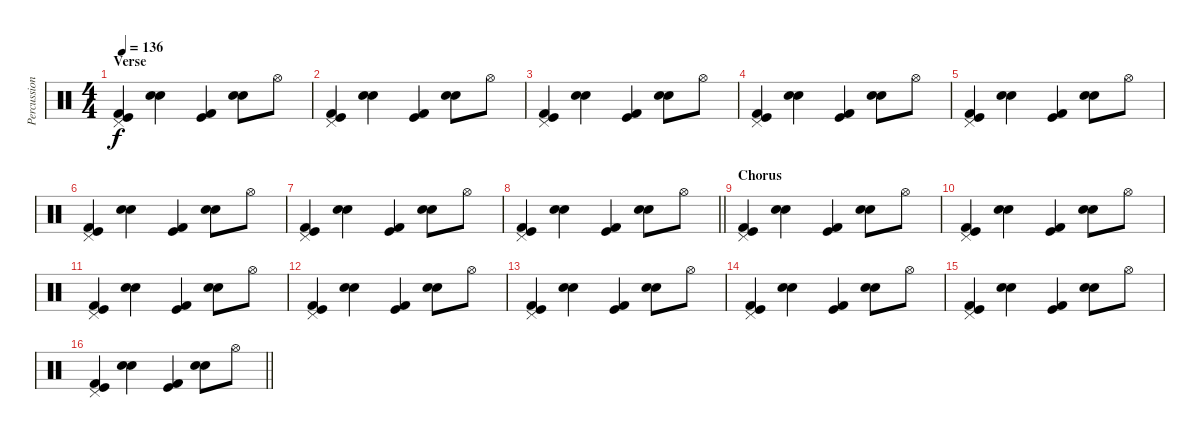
\track ("Percussion" "Percussion") {instrument percussion}
\staff {score}
\articulation defaults
\ts (4 4)
\section ("" "Verse")
\tempo 136
\clef neutral
\ks c
("Pedal Hi-Hat (hit)" "Kick (hit)" "Kick (hit) 2").4{dy f} ("Snare (hit) 2" "Electric Snare (hit)").4 ("Kick (hit)" "Kick (hit) 2").4 ("Snare (hit) 2" "Electric Snare (hit)").8 "Hi-Hat (open)".8 |
("Pedal Hi-Hat (hit)" "Kick (hit)" "Kick (hit) 2").4 ("Snare (hit) 2" "Electric Snare (hit)").4 ("Kick (hit)" "Kick (hit) 2").4 ("Snare (hit) 2" "Electric Snare (hit)").8 "Hi-Hat (open)".8 |
("Pedal Hi-Hat (hit)" "Kick (hit)" "Kick (hit) 2").4 ("Snare (hit) 2" "Electric Snare (hit)").4 ("Kick (hit)" "Kick (hit) 2").4 ("Snare (hit) 2" "Electric Snare (hit)").8 "Hi-Hat (open)".8 |
("Pedal Hi-Hat (hit)" "Kick (hit)" "Kick (hit) 2").4 ("Snare (hit) 2" "Electric Snare (hit)").4 ("Kick (hit)" "Kick (hit) 2").4 ("Snare (hit) 2" "Electric Snare (hit)").8 "Hi-Hat (open)".8 |
("Pedal Hi-Hat (hit)" "Kick (hit)" "Kick (hit) 2").4 ("Snare (hit) 2" "Electric Snare (hit)").4 ("Kick (hit)" "Kick (hit) 2").4 ("Snare (hit) 2" "Electric Snare (hit)").8 "Hi-Hat (open)".8 |
("Pedal Hi-Hat (hit)" "Kick (hit)" "Kick (hit) 2").4 ("Snare (hit) 2" "Electric Snare (hit)").4 ("Kick (hit)" "Kick (hit) 2").4 ("Snare (hit) 2" "Electric Snare (hit)").8 "Hi-Hat (open)".8 |
("Pedal Hi-Hat (hit)" "Kick (hit)" "Kick (hit) 2").4 ("Snare (hit) 2" "Electric Snare (hit)").4 ("Kick (hit)" "Kick (hit) 2").4 ("Snare (hit) 2" "Electric Snare (hit)").8 "Hi-Hat (open)".8 |
\barLineRight lightlight
("Pedal Hi-Hat (hit)" "Kick (hit)" "Kick (hit) 2").4 ("Snare (hit) 2" "Electric Snare (hit)").4 ("Kick (hit)" "Kick (hit) 2").4 ("Snare (hit) 2" "Electric Snare (hit)").8 "Hi-Hat (open)".8 |
\section ("" "Chorus")
("Pedal Hi-Hat (hit)" "Kick (hit)" "Kick (hit) 2").4 ("Snare (hit) 2" "Electric Snare (hit)").4 ("Kick (hit)" "Kick (hit) 2").4 ("Snare (hit) 2" "Electric Snare (hit)").8 "Hi-Hat (open)".8 |
("Pedal Hi-Hat (hit)" "Kick (hit)" "Kick (hit) 2").4 ("Snare (hit) 2" "Electric Snare (hit)").4 ("Kick (hit)" "Kick (hit) 2").4 ("Snare (hit) 2" "Electric Snare (hit)").8 "Hi-Hat (open)".8 |
("Pedal Hi-Hat (hit)" "Kick (hit)" "Kick (hit) 2").4 ("Snare (hit) 2" "Electric Snare (hit)").4 ("Kick (hit)" "Kick (hit) 2").4 ("Snare (hit) 2" "Electric Snare (hit)").8 "Hi-Hat (open)".8 |
("Pedal Hi-Hat (hit)" "Kick (hit)" "Kick (hit) 2").4 ("Snare (hit) 2" "Electric Snare (hit)").4 ("Kick (hit)" "Kick (hit) 2").4 ("Snare (hit) 2" "Electric Snare (hit)").8 "Hi-Hat (open)".8 |
("Pedal Hi-Hat (hit)" "Kick (hit)" "Kick (hit) 2").4 ("Snare (hit) 2" "Electric Snare (hit)").4 ("Kick (hit)" "Kick (hit) 2").4 ("Snare (hit) 2" "Electric Snare (hit)").8 "Hi-Hat (open)".8 |
("Pedal Hi-Hat (hit)" "Kick (hit)" "Kick (hit) 2").4 ("Snare (hit) 2" "Electric Snare (hit)").4 ("Kick (hit)" "Kick (hit) 2").4 ("Snare (hit) 2" "Electric Snare (hit)").8 "Hi-Hat (open)".8 |
("Pedal Hi-Hat (hit)" "Kick (hit)" "Kick (hit) 2").4 ("Snare (hit) 2" "Electric Snare (hit)").4 ("Kick (hit)" "Kick (hit) 2").4 ("Snare (hit) 2" "Electric Snare (hit)").8 "Hi-Hat (open)".8 |
\barLineRight lightlight
("Pedal Hi-Hat (hit)" "Kick (hit)" "Kick (hit) 2").4 ("Snare (hit) 2" "Electric Snare (hit)").4 ("Kick (hit)" "Kick (hit) 2").4 ("Snare (hit) 2" "Electric Snare (hit)").8 "Hi-Hat (open)".8
